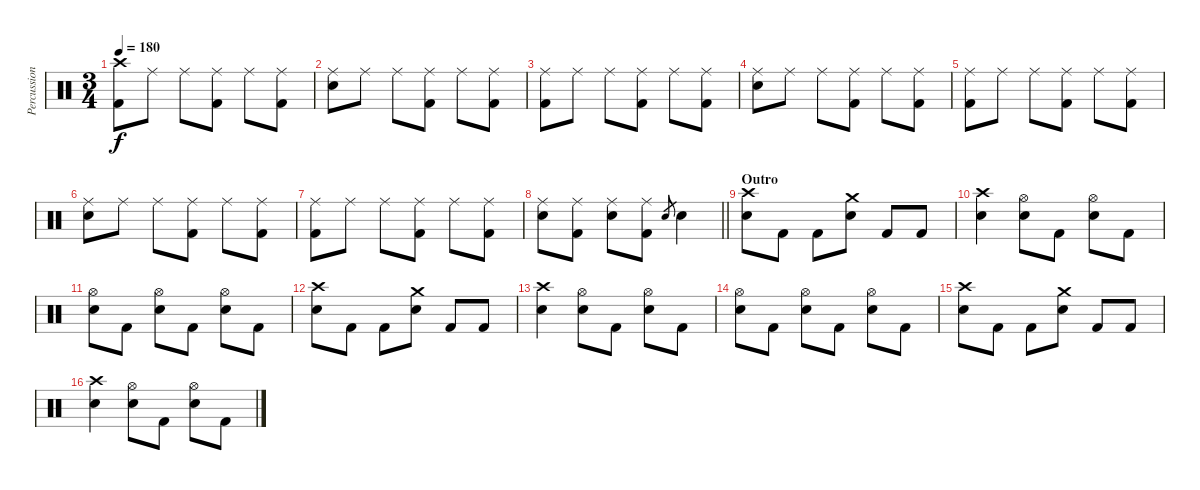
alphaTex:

\track ("Percussion" "Percussion") {instrument percussion}
\staff {score}
\articulation defaults
\ts (3 4)
\tempo 180
\clef neutral
\ks c
("Crash high (hit)" "Kick (hit) 2").8{dy f} "Ride (middle)".8 "Ride (middle)".8 ("Ride (middle)" "Kick (hit) 2").8 "Ride (middle)".8 ("Ride (middle)" "Kick (hit) 2").8 |
("Ride (middle)" "Electric Snare (hit)").8 "Ride (middle)".8 "Ride (middle)".8 ("Ride (middle)" "Kick (hit) 2").8 "Ride (middle)".8 ("Ride (middle)" "Kick (hit) 2").8 |
("Ride (middle)" "Kick (hit) 2").8 "Ride (middle)".8 "Ride (middle)".8 ("Ride (middle)" "Kick (hit) 2").8 "Ride (middle)".8 ("Ride (middle)" "Kick (hit) 2").8 |
("Ride (middle)" "Electric Snare (hit)").8 "Ride (middle)".8 "Ride (middle)".8 ("Ride (middle)" "Kick (hit) 2").8 "Ride (middle)".8 ("Ride (middle)" "Kick (hit) 2").8 |
("Ride (middle)" "Kick (hit) 2").8 "Ride (middle)".8 "Ride (middle)".8 ("Ride (middle)" "Kick (hit) 2").8 "Ride (middle)".8 ("Ride (middle)" "Kick (hit) 2").8 |
("Ride (middle)" "Electric Snare (hit)").8 "Ride (middle)".8 "Ride (middle)".8 ("Ride (middle)" "Kick (hit) 2").8 "Ride (middle)".8 ("Ride (middle)" "Kick (hit) 2").8 |
("Ride (middle)" "Kick (hit) 2").8 "Ride (middle)".8 "Ride (middle)".8 ("Ride (middle)" "Kick (hit) 2").8 "Ride (middle)".8 ("Ride (middle)" "Kick (hit) 2").8 |
\barLineRight lightlight
("Ride (middle)" "Electric Snare (hit)").8 ("Ride (middle)" "Kick (hit) 2").8 ("Ride (middle)" "Electric Snare (hit)").8 ("Ride (middle)" "Kick (hit) 2").8 "Electric Snare (hit)".8{gr} "Electric Snare (hit)".4 |
\section ("" "Outro")
("Crash high (hit)" "Electric Snare (hit)").8 "Kick (hit) 2".8 "Kick (hit) 2".8 ("Crash medium (hit)" "Electric Snare (hit)").8 "Kick (hit) 2".8 "Kick (hit) 2".8 |
("Crash high (hit)" "Electric Snare (hit)").4 ("Hi-Hat (open)" "Electric Snare (hit)").8 "Kick (hit) 2".8 ("Hi-Hat (open)" "Electric Snare (hit)").8 "Kick (hit) 2".8 |
("Hi-Hat (open)" "Electric Snare (hit)").8 "Kick (hit) 2".8 ("Hi-Hat (open)" "Electric Snare (hit)").8 "Kick (hit) 2".8 ("Hi-Hat (open)" "Electric Snare (hit)").8 "Kick (hit) 2".8 |
("Crash high (hit)" "Electric Snare (hit)").8 "Kick (hit) 2".8 "Kick (hit) 2".8 ("Crash medium (hit)" "Electric Snare (hit)").8 "Kick (hit) 2".8 "Kick (hit) 2".8 |
("Crash high (hit)" "Electric Snare (hit)").4 ("Hi-Hat (open)" "Electric Snare (hit)").8 "Kick (hit) 2".8 ("Hi-Hat (open)" "Electric Snare (hit)").8 "Kick (hit) 2".8 |
("Hi-Hat (open)" "Electric Snare (hit)").8 "Kick (hit) 2".8 ("Hi-Hat (open)" "Electric Snare (hit)").8 "Kick (hit) 2".8 ("Hi-Hat (open)" "Electric Snare (hit)").8 "Kick (hit) 2".8 |
("Crash high (hit)" "Electric Snare (hit)").8 "Kick (hit) 2".8 "Kick (hit) 2".8 ("Crash medium (hit)" "Electric Snare (hit)").8 "Kick (hit) 2".8 "Kick (hit) 2".8 |
("Crash high (hit)" "Electric Snare (hit)").4 ("Hi-Hat (open)" "Electric Snare (hit)").8 "Kick (hit) 2".8 ("Hi-Hat (open)" "Electric Snare (hit)").8 "Kick (hit) 2".8
